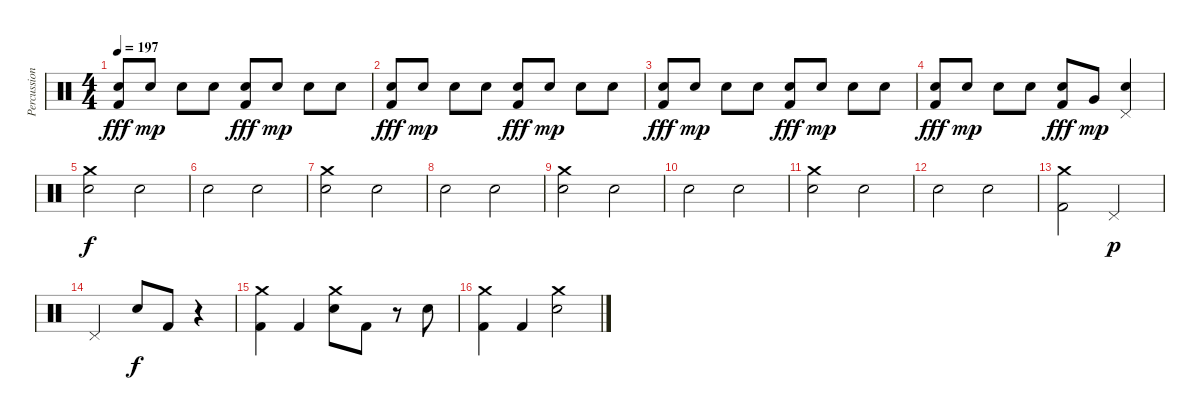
\track ("Percussion" "Percussion") {instrument percussion}
\staff {score}
\articulation defaults
\ts (4 4)
\tempo 197
\clef neutral
\ks c
("Snare (hit) 2" "Kick (hit) 2").8{dy fff} "Snare (hit) 2".8{dy mp} "Snare (hit) 2".8 "Snare (hit) 2".8 ("Snare (hit) 2" "Kick (hit) 2").8{dy fff} "Snare (hit) 2".8{dy mp} "Snare (hit) 2".8 "Snare (hit) 2".8 |
("Snare (hit) 2" "Kick (hit) 2").8{dy fff} "Snare (hit) 2".8{dy mp} "Snare (hit) 2".8 "Snare (hit) 2".8 ("Snare (hit) 2" "Kick (hit) 2").8{dy fff} "Snare (hit) 2".8{dy mp} "Snare (hit) 2".8 "Snare (hit) 2".8 |
("Snare (hit) 2" "Kick (hit) 2").8{dy fff} "Snare (hit) 2".8{dy mp} "Snare (hit) 2".8 "Snare (hit) 2".8 ("Snare (hit) 2" "Kick (hit) 2").8{dy fff} "Snare (hit) 2".8{dy mp} "Snare (hit) 2".8 "Snare (hit) 2".8 |
("Snare (hit) 2" "Kick (hit) 2").8{dy fff} "Snare (hit) 2".8{dy mp} "Snare (hit) 2".8 "Snare (hit) 2".8 ("Snare (hit) 2" "Kick (hit) 2").8{dy fff} "Very Low Tom (hit)".8{dy mp} ("Pedal Hi-Hat (hit)" "Snare (hit) 2").4 |
("Crash medium (hit)" "Snare (hit) 2").2{dy f} "Snare (hit) 2".2 |
"Snare (hit) 2".2 "Snare (hit) 2".2 |
("Crash medium (hit)" "Snare (hit) 2").2 "Snare (hit) 2".2 |
"Snare (hit) 2".2 "Snare (hit) 2".2 |
("Crash medium (hit)" "Snare (hit) 2").2 "Snare (hit) 2".2 |
"Snare (hit) 2".2 "Snare (hit) 2".2 |
("Crash medium (hit)" "Snare (hit) 2").2 "Snare (hit) 2".2 |
"Snare (hit) 2".2 "Snare (hit) 2".2 |
("Crash medium (hit)" "Kick (hit) 2").2 "Pedal Hi-Hat (hit)".2{dy p} |
"Pedal Hi-Hat (hit)".2 "Snare (hit) 2".8{dy f} "Kick (hit) 2".8 r.4 |
("Crash medium (hit)" "Kick (hit) 2").4 "Kick (hit) 2".4 ("Crash medium (hit)" "Snare (hit) 2").8 "Kick (hit) 2".8 r.8 "Snare (hit) 2".8 |
("Crash medium (hit)" "Kick (hit) 2").4 "Kick (hit) 2".4 ("Crash medium (hit)" "Snare (hit) 2").2
